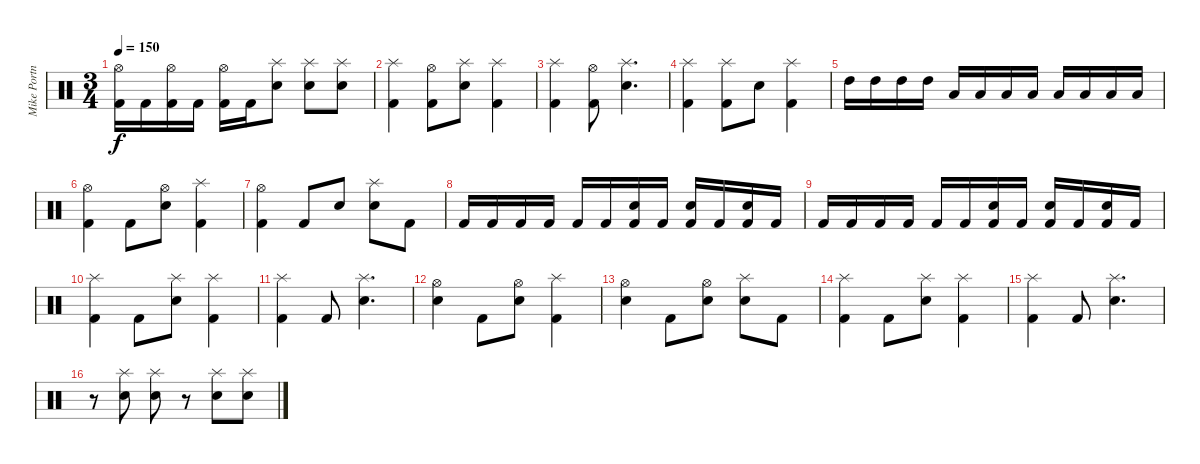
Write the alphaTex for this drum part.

\track ("Mike Portnoy" "Mike Portn") {instrument percussion}
\staff {score}
\articulation defaults
\ts (3 4)
\tempo 150
\clef neutral
\ks c
("Kick (hit) 2" "Hi-Hat (open)").16{dy f} "Kick (hit) 2".16 ("Kick (hit) 2" "Hi-Hat (open)").16 "Kick (hit) 2".16 ("Kick (hit) 2" "Hi-Hat (open)").16 "Kick (hit) 2".16 ("Splash (hit)" "Electric Snare (hit)").8 ("Splash (hit)" "Electric Snare (hit)").8 ("Splash (hit)" "Electric Snare (hit)").8 |
("Kick (hit) 2" "Splash (hit)").4 ("Kick (hit) 2" "Hi-Hat (open)").8 ("Electric Snare (hit)" "Splash (hit)").8 ("Kick (hit) 2" "Splash (hit)").4 |
("Kick (hit) 2" "Splash (hit)").4 ("Kick (hit) 2" "Hi-Hat (open)").8 ("Electric Snare (hit)" "Splash (hit)").4{d} |
("Kick (hit) 2" "Splash (hit)").4 ("Kick (hit) 2" "Splash (hit)").8 "Electric Snare (hit)".8 ("Kick (hit) 2" "Splash (hit)").4 |
"High Tom (hit)".16 "High Tom (hit)".16 "High Tom (hit)".16 "High Tom (hit)".16 "Low Tom (hit)".16 "Low Tom (hit)".16 "Low Tom (hit)".16 "Low Tom (hit)".16 "Low Floor Tom (hit)".16 "Low Floor Tom (hit)".16 "Low Floor Tom (hit)".16 "Low Floor Tom (hit)".16 |
("Kick (hit) 2" "Hi-Hat (open)").4 "Kick (hit) 2".8 ("Electric Snare (hit)" "Hi-Hat (open)").8 ("Kick (hit) 2" "Splash (hit)").4 |
("Kick (hit) 2" "Hi-Hat (open)").4 "Kick (hit) 2".8 "Electric Snare (hit)".8 ("Electric Snare (hit)" "Splash (hit)").8 "Kick (hit) 2".8 |
"Kick (hit) 2".16 "Kick (hit) 2".16 "Kick (hit) 2".16 "Kick (hit) 2".16 "Kick (hit) 2".16 "Kick (hit) 2".16 ("Kick (hit) 2" "Electric Snare (hit)").16 "Kick (hit) 2".16 ("Kick (hit) 2" "Electric Snare (hit)").16 "Kick (hit) 2".16 ("Kick (hit) 2" "Electric Snare (hit)").16 "Kick (hit) 2".16 |
"Kick (hit) 2".16 "Kick (hit) 2".16 "Kick (hit) 2".16 "Kick (hit) 2".16 "Kick (hit) 2".16 "Kick (hit) 2".16 ("Kick (hit) 2" "Electric Snare (hit)").16 "Kick (hit) 2".16 ("Kick (hit) 2" "Electric Snare (hit)").16 "Kick (hit) 2".16 ("Kick (hit) 2" "Electric Snare (hit)").16 "Kick (hit) 2".16 |
("Kick (hit) 2" "Splash (hit)").4 "Kick (hit) 2".8 ("Electric Snare (hit)" "Splash (hit)").8 ("Kick (hit) 2" "Splash (hit)").4 |
("Kick (hit) 2" "Splash (hit)").4 "Kick (hit) 2".8 ("Electric Snare (hit)" "Splash (hit)").4{d} |
("Electric Snare (hit)" "Hi-Hat (open)").4 "Kick (hit) 2".8 ("Electric Snare (hit)" "Hi-Hat (open)").8 ("Kick (hit) 2" "Splash (hit)").4 |
("Electric Snare (hit)" "Hi-Hat (open)").4 "Kick (hit) 2".8 ("Electric Snare (hit)" "Hi-Hat (open)").8 ("Electric Snare (hit)" "Splash (hit)").8 "Kick (hit) 2".8 |
("Kick (hit) 2" "Splash (hit)").4 "Kick (hit) 2".8 ("Electric Snare (hit)" "Splash (hit)").8 ("Kick (hit) 2" "Splash (hit)").4 |
("Kick (hit) 2" "Splash (hit)").4 "Kick (hit) 2".8 ("Electric Snare (hit)" "Splash (hit)").4{d} |
r.8 ("Electric Snare (hit)" "Splash (hit)").8 ("Electric Snare (hit)" "Splash (hit)").8 r.8 ("Electric Snare (hit)" "Splash (hit)").8 ("Electric Snare (hit)" "Splash (hit)").8
